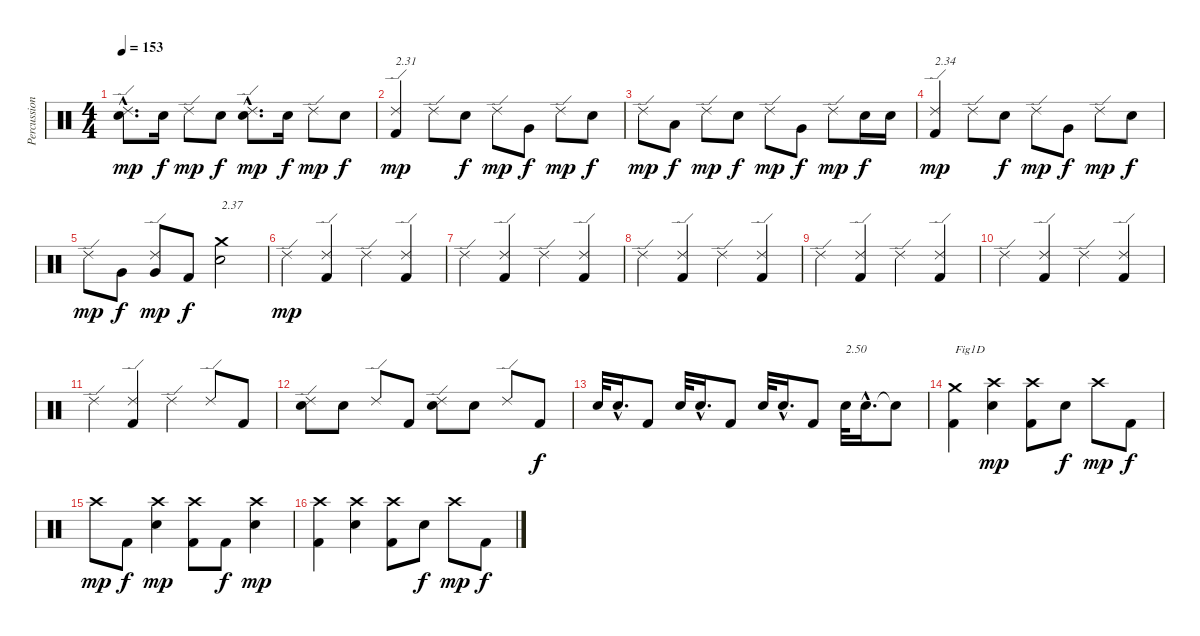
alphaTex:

\track ("Percussions" "Percussion") {instrument percussion}
\staff {score}
\articulation defaults
\ts (4 4)
\tempo 153
\clef neutral
\ks c
("Electric Snare (hit)"{hac} "Ride (edge) 2"{hac}).8{d dy mp} "Electric Snare (hit)".16{dy f} "Ride (edge) 2".8{dy mp} "Electric Snare (hit)".8{dy f} ("Electric Snare (hit)"{hac} "Ride (edge) 2"{hac}).8{d dy mp} "Electric Snare (hit)".16{dy f} "Ride (edge) 2".8{dy mp} "Electric Snare (hit)".8{dy f} |
("Kick (hit) 2" "Ride (edge) 2").4{txt "2.31" dy mp} "Ride (edge) 2".8 "Electric Snare (hit)".8{dy f} "Ride (edge) 2".8{dy mp} "Very Low Tom (hit)".8{dy f} "Ride (edge) 2".8{dy mp} "Electric Snare (hit)".8{dy f} |
"Ride (edge) 2".8{dy mp} "Low Floor Tom (hit)".8{dy f} "Ride (edge) 2".8{dy mp} "Electric Snare (hit)".8{dy f} "Ride (edge) 2".8{dy mp} "Very Low Tom (hit)".8{dy f} "Ride (edge) 2".8{dy mp} "Electric Snare (hit)".16{dy f} "Electric Snare (hit)".16 |
("Kick (hit) 2" "Ride (edge) 2").4{txt "2.34" dy mp} "Ride (edge) 2".8 "Electric Snare (hit)".8{dy f} "Ride (edge) 2".8{dy mp} "Very Low Tom (hit)".8{dy f} "Ride (edge) 2".8{dy mp} "Electric Snare (hit)".8{dy f} |
"Ride (edge) 2".8{dy mp} "Very Low Tom (hit)".8{dy f} ("Very Low Tom (hit)" "Ride (edge) 2").8{dy mp} "Kick (hit) 2".8{dy f} ("Electric Snare (hit)" "Crash medium (hit)").2{txt "2.37"} |
"Ride (edge) 2".4{dy mp} ("Kick (hit) 2" "Ride (edge) 2").4 "Ride (edge) 2".4 ("Kick (hit) 2" "Ride (edge) 2").4 |
"Ride (edge) 2".4 ("Kick (hit) 2" "Ride (edge) 2").4 "Ride (edge) 2".4 ("Kick (hit) 2" "Ride (edge) 2").4 |
"Ride (edge) 2".4 ("Kick (hit) 2" "Ride (edge) 2").4 "Ride (edge) 2".4 ("Kick (hit) 2" "Ride (edge) 2").4 |
"Ride (edge) 2".4 ("Kick (hit) 2" "Ride (edge) 2").4 "Ride (edge) 2".4 ("Kick (hit) 2" "Ride (edge) 2").4 |
"Ride (edge) 2".4 ("Kick (hit) 2" "Ride (edge) 2").4 "Ride (edge) 2".4 ("Kick (hit) 2" "Ride (edge) 2").4 |
"Ride (edge) 2".4 ("Kick (hit) 2" "Ride (edge) 2").4 "Ride (edge) 2".4 "Ride (edge) 2".8 "Kick (hit) 2".8 |
("Electric Snare (hit)" "Ride (edge) 2").8 "Electric Snare (hit)".8 "Ride (edge) 2".8 "Kick (hit) 2".8 ("Electric Snare (hit)" "Ride (edge) 2").8 "Electric Snare (hit)".8 "Ride (edge) 2".8 "Kick (hit) 2".8{dy f} |
"Electric Snare (hit)".32 "Electric Snare (hit)"{hac}.16{d} "Kick (hit) 2".8 "Electric Snare (hit)".32 "Electric Snare (hit)"{hac}.16{d} "Kick (hit) 2".8 "Electric Snare (hit)".32 "Electric Snare (hit)"{hac}.16{d} "Kick (hit) 2".8 "Electric Snare (hit)".32{txt "2.50"} "Electric Snare (hit)"{hac}.16{d} "Snare (hit)"{t}.8 |
("Kick (hit) 2" "Crash medium (hit)").4{txt "Fig1D"} ("Electric Snare (hit)" "Crash high (hit)").4{dy mp} ("Kick (hit) 2" "Crash high (hit)").8 "Electric Snare (hit)".8{dy f} "Crash high (hit)".8{dy mp} "Kick (hit) 2".8{dy f} |
"Crash high (hit)".8{dy mp} "Kick (hit) 2".8{dy f} ("Electric Snare (hit)" "Crash high (hit)").4{dy mp} ("Kick (hit) 2" "Crash high (hit)").8 "Kick (hit) 2".8{dy f} ("Electric Snare (hit)" "Crash high (hit)").4{dy mp} |
("Kick (hit) 2" "Crash high (hit)").4 ("Electric Snare (hit)" "Crash high (hit)").4 ("Kick (hit) 2" "Crash high (hit)").8 "Electric Snare (hit)".8{dy f} "Crash high (hit)".8{dy mp} "Kick (hit) 2".8{dy f}
